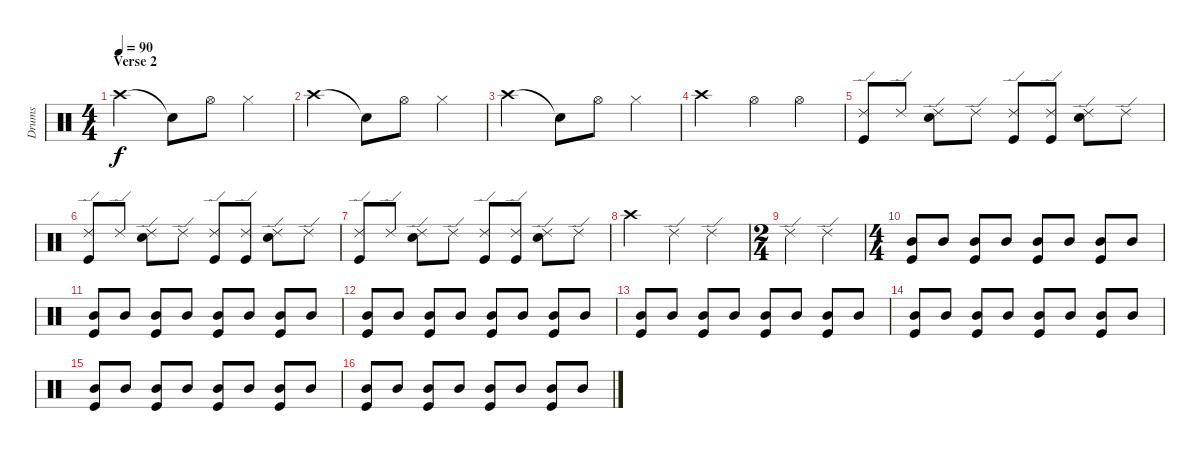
\track ("Drums" "Drums") {instrument percussion}
\staff {score}
\articulation defaults
\ts (4 4)
\section ("" "Verse 2")
\tempo 90
\clef neutral
\ks c "Crash high (hit)".2{dy f} "Snare (hit)"{t}.8 "Hi-Hat (open)".8 "Hi-Hat (closed)".4
|
"Crash high (hit)".2 "Snare (hit)"{t}.8 "Hi-Hat (open)".8 "Hi-Hat (closed)".4 |
"Crash high (hit)".2 "Snare (hit)"{t}.8 "Hi-Hat (open)".8 "Hi-Hat (closed)".4 |
"Crash high (hit)".2 "Hi-Hat (open)".4 "Hi-Hat (open)".4 |
("Ride (edge) 2" "Kick (hit)").8 "Ride (edge) 2".8 ("Ride (edge) 2" "Snare (hit) 2").8 "Ride (edge) 2".8 ("Ride (edge) 2" "Kick (hit)").8 ("Ride (edge) 2" "Kick (hit)").8 ("Ride (edge) 2" "Snare (hit) 2").8 "Ride (edge) 2".8 |
("Ride (edge) 2" "Kick (hit)").8 "Ride (edge) 2".8 ("Ride (edge) 2" "Snare (hit) 2").8 "Ride (edge) 2".8 ("Ride (edge) 2" "Kick (hit)").8 ("Ride (edge) 2" "Kick (hit)").8 ("Ride (edge) 2" "Snare (hit) 2").8 "Ride (edge) 2".8 |
("Ride (edge) 2" "Kick (hit)").8 "Ride (edge) 2".8 ("Ride (edge) 2" "Snare (hit) 2").8 "Ride (edge) 2".8 ("Ride (edge) 2" "Kick (hit)").8 ("Ride (edge) 2" "Kick (hit)").8 ("Ride (edge) 2" "Snare (hit) 2").8 "Ride (edge) 2".8 |
"Crash high (hit)".2 "Ride (edge) 2".4 "Ride (edge) 2".4 |
\ts (2 4)
"Ride (edge) 2".4 "Ride (edge) 2".4 |
\ts (4 4)
("Mid Tom (hit)" "Kick (hit)").8 "Mid Tom (hit)".8 ("Mid Tom (hit)" "Kick (hit)").8 "Mid Tom (hit)".8 ("Mid Tom (hit)" "Kick (hit)").8 "Mid Tom (hit)".8 ("Mid Tom (hit)" "Kick (hit)").8 "Mid Tom (hit)".8 |
("Mid Tom (hit)" "Kick (hit)").8 "Mid Tom (hit)".8 ("Mid Tom (hit)" "Kick (hit)").8 "Mid Tom (hit)".8 ("Mid Tom (hit)" "Kick (hit)").8 "Mid Tom (hit)".8 ("Mid Tom (hit)" "Kick (hit)").8 "Mid Tom (hit)".8 |
("Mid Tom (hit)" "Kick (hit)").8 "Mid Tom (hit)".8 ("Mid Tom (hit)" "Kick (hit)").8 "Mid Tom (hit)".8 ("Mid Tom (hit)" "Kick (hit)").8 "Mid Tom (hit)".8 ("Mid Tom (hit)" "Kick (hit)").8 "Mid Tom (hit)".8 |
("Mid Tom (hit)" "Kick (hit)").8 "Mid Tom (hit)".8 ("Mid Tom (hit)" "Kick (hit)").8 "Mid Tom (hit)".8 ("Mid Tom (hit)" "Kick (hit)").8 "Mid Tom (hit)".8 ("Mid Tom (hit)" "Kick (hit)").8 "Mid Tom (hit)".8 |
("Mid Tom (hit)" "Kick (hit)").8 "Mid Tom (hit)".8 ("Mid Tom (hit)" "Kick (hit)").8 "Mid Tom (hit)".8 ("Mid Tom (hit)" "Kick (hit)").8 "Mid Tom (hit)".8 ("Mid Tom (hit)" "Kick (hit)").8 "Mid Tom (hit)".8 |
("Mid Tom (hit)" "Kick (hit)").8 "Mid Tom (hit)".8 ("Mid Tom (hit)" "Kick (hit)").8 "Mid Tom (hit)".8 ("Mid Tom (hit)" "Kick (hit)").8 "Mid Tom (hit)".8 ("Mid Tom (hit)" "Kick (hit)").8 "Mid Tom (hit)".8 |
("Mid Tom (hit)" "Kick (hit)").8 "Mid Tom (hit)".8 ("Mid Tom (hit)" "Kick (hit)").8 "Mid Tom (hit)".8 ("Mid Tom (hit)" "Kick (hit)").8 "Mid Tom (hit)".8 ("Mid Tom (hit)" "Kick (hit)").8 "Mid Tom (hit)".8
